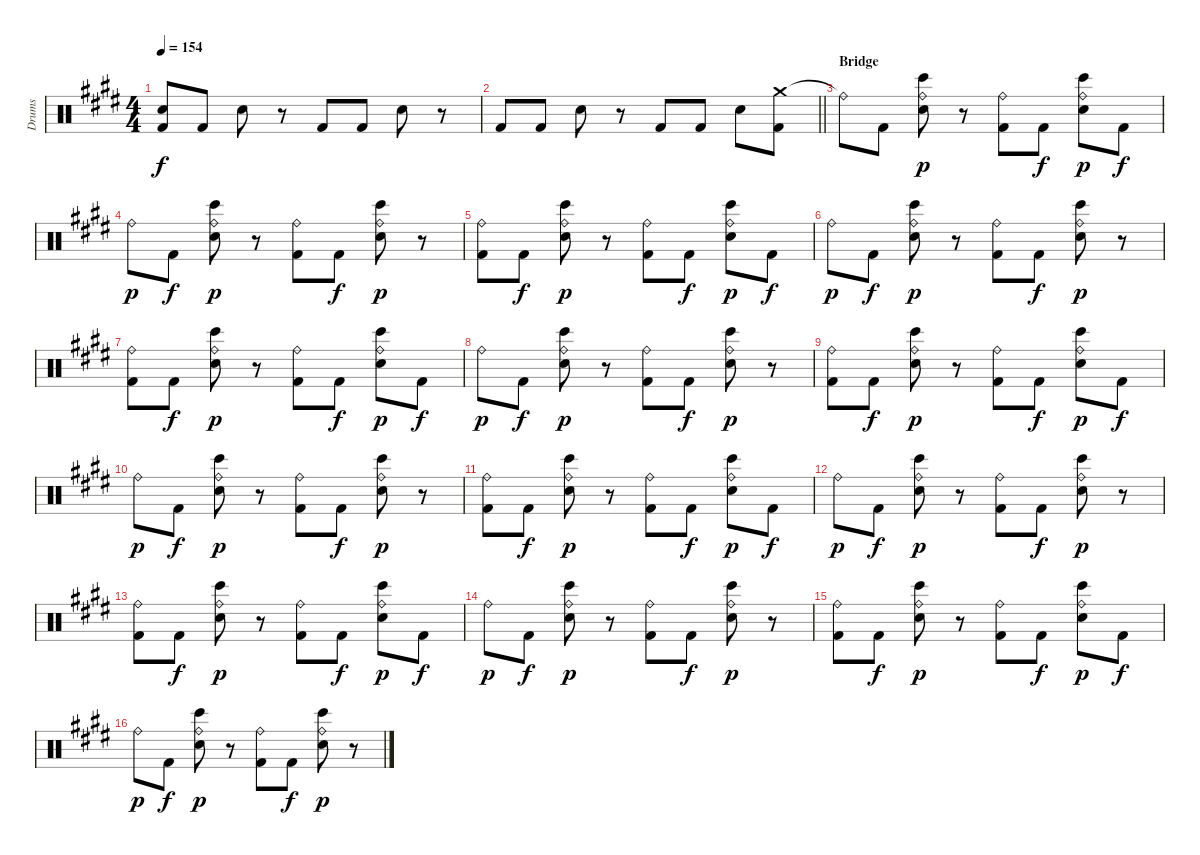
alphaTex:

\track ("Drums" "Drums") {instrument percussion}
\staff {score}
\articulation defaults
\ts (4 4)
\tempo 154
\clef neutral
\ks e
("Electric Snare (hit)" "Kick (hit) 2").8{dy f} "Kick (hit) 2".8 "Electric Snare (hit)".8 r.8 "Kick (hit) 2".8 "Kick (hit) 2".8 "Electric Snare (hit)".8 r.8 |
\barLineRight lightlight "Kick (hit) 2".8 "Kick (hit) 2".8 "Electric Snare (hit)".8
r.8 "Kick (hit) 2".8 "Kick (hit) 2".8 "Electric Snare (hit)".8 ("Crash medium (hit)" "Kick (hit) 2").8 |
\section ("" "Bridge")
"Ride (bell)"{t}.8 "Kick (hit) 2".8 ("Ride (bell)" "Electric Snare (hit)" "Bongo High (hit)").8{dy p} r.8 ("Ride (bell)" "Kick (hit) 2").8 "Kick (hit) 2".8{dy f} ("Ride (bell)" "Electric Snare (hit)" "Bongo High (hit)").8{dy p} "Kick (hit) 2".8{dy f} |
"Ride (bell)".8{dy p} "Kick (hit) 2".8{dy f} ("Ride (bell)" "Electric Snare (hit)" "Bongo High (hit)").8{dy p} r.8 ("Ride (bell)" "Kick (hit) 2").8 "Kick (hit) 2".8{dy f} ("Ride (bell)" "Electric Snare (hit)" "Bongo High (hit)").8{dy p} r.8 |
("Ride (bell)" "Kick (hit) 2").8 "Kick (hit) 2".8{dy f} ("Ride (bell)" "Electric Snare (hit)" "Bongo High (hit)").8{dy p} r.8 ("Ride (bell)" "Kick (hit) 2").8 "Kick (hit) 2".8{dy f} ("Ride (bell)" "Electric Snare (hit)" "Bongo High (hit)").8{dy p} "Kick (hit) 2".8{dy f} |
"Ride (bell)".8{dy p} "Kick (hit) 2".8{dy f} ("Ride (bell)" "Electric Snare (hit)" "Bongo High (hit)").8{dy p} r.8 ("Ride (bell)" "Kick (hit) 2").8 "Kick (hit) 2".8{dy f} ("Ride (bell)" "Electric Snare (hit)" "Bongo High (hit)").8{dy p} r.8 |
("Ride (bell)" "Kick (hit) 2").8 "Kick (hit) 2".8{dy f} ("Ride (bell)" "Electric Snare (hit)" "Bongo High (hit)").8{dy p} r.8 ("Ride (bell)" "Kick (hit) 2").8 "Kick (hit) 2".8{dy f} ("Ride (bell)" "Electric Snare (hit)" "Bongo High (hit)").8{dy p} "Kick (hit) 2".8{dy f} |
"Ride (bell)".8{dy p} "Kick (hit) 2".8{dy f} ("Ride (bell)" "Electric Snare (hit)" "Bongo High (hit)").8{dy p} r.8 ("Ride (bell)" "Kick (hit) 2").8 "Kick (hit) 2".8{dy f} ("Ride (bell)" "Electric Snare (hit)" "Bongo High (hit)").8{dy p} r.8 |
("Ride (bell)" "Kick (hit) 2").8 "Kick (hit) 2".8{dy f} ("Ride (bell)" "Electric Snare (hit)" "Bongo High (hit)").8{dy p} r.8 ("Ride (bell)" "Kick (hit) 2").8 "Kick (hit) 2".8{dy f} ("Ride (bell)" "Electric Snare (hit)" "Bongo High (hit)").8{dy p} "Kick (hit) 2".8{dy f} |
"Ride (bell)".8{dy p} "Kick (hit) 2".8{dy f} ("Ride (bell)" "Electric Snare (hit)" "Bongo High (hit)").8{dy p} r.8 ("Ride (bell)" "Kick (hit) 2").8 "Kick (hit) 2".8{dy f} ("Ride (bell)" "Electric Snare (hit)" "Bongo High (hit)").8{dy p} r.8 |
("Ride (bell)" "Kick (hit) 2").8 "Kick (hit) 2".8{dy f} ("Ride (bell)" "Electric Snare (hit)" "Bongo High (hit)").8{dy p} r.8 ("Ride (bell)" "Kick (hit) 2").8 "Kick (hit) 2".8{dy f} ("Ride (bell)" "Electric Snare (hit)" "Bongo High (hit)").8{dy p} "Kick (hit) 2".8{dy f} |
"Ride (bell)".8{dy p} "Kick (hit) 2".8{dy f} ("Ride (bell)" "Electric Snare (hit)" "Bongo High (hit)").8{dy p} r.8 ("Ride (bell)" "Kick (hit) 2").8 "Kick (hit) 2".8{dy f} ("Ride (bell)" "Electric Snare (hit)" "Bongo High (hit)").8{dy p} r.8 |
("Ride (bell)" "Kick (hit) 2").8 "Kick (hit) 2".8{dy f} ("Ride (bell)" "Electric Snare (hit)" "Bongo High (hit)").8{dy p} r.8 ("Ride (bell)" "Kick (hit) 2").8 "Kick (hit) 2".8{dy f} ("Ride (bell)" "Electric Snare (hit)" "Bongo High (hit)").8{dy p} "Kick (hit) 2".8{dy f} |
"Ride (bell)".8{dy p} "Kick (hit) 2".8{dy f} ("Ride (bell)" "Electric Snare (hit)" "Bongo High (hit)").8{dy p} r.8 ("Ride (bell)" "Kick (hit) 2").8 "Kick (hit) 2".8{dy f} ("Ride (bell)" "Electric Snare (hit)" "Bongo High (hit)").8{dy p} r.8 |
("Ride (bell)" "Kick (hit) 2").8 "Kick (hit) 2".8{dy f} ("Ride (bell)" "Electric Snare (hit)" "Bongo High (hit)").8{dy p} r.8 ("Ride (bell)" "Kick (hit) 2").8 "Kick (hit) 2".8{dy f} ("Ride (bell)" "Electric Snare (hit)" "Bongo High (hit)").8{dy p} "Kick (hit) 2".8{dy f} |
"Ride (bell)".8{dy p} "Kick (hit) 2".8{dy f} ("Ride (bell)" "Electric Snare (hit)" "Bongo High (hit)").8{dy p} r.8 ("Ride (bell)" "Kick (hit) 2").8 "Kick (hit) 2".8{dy f} ("Ride (bell)" "Electric Snare (hit)" "Bongo High (hit)").8{dy p} r.8
